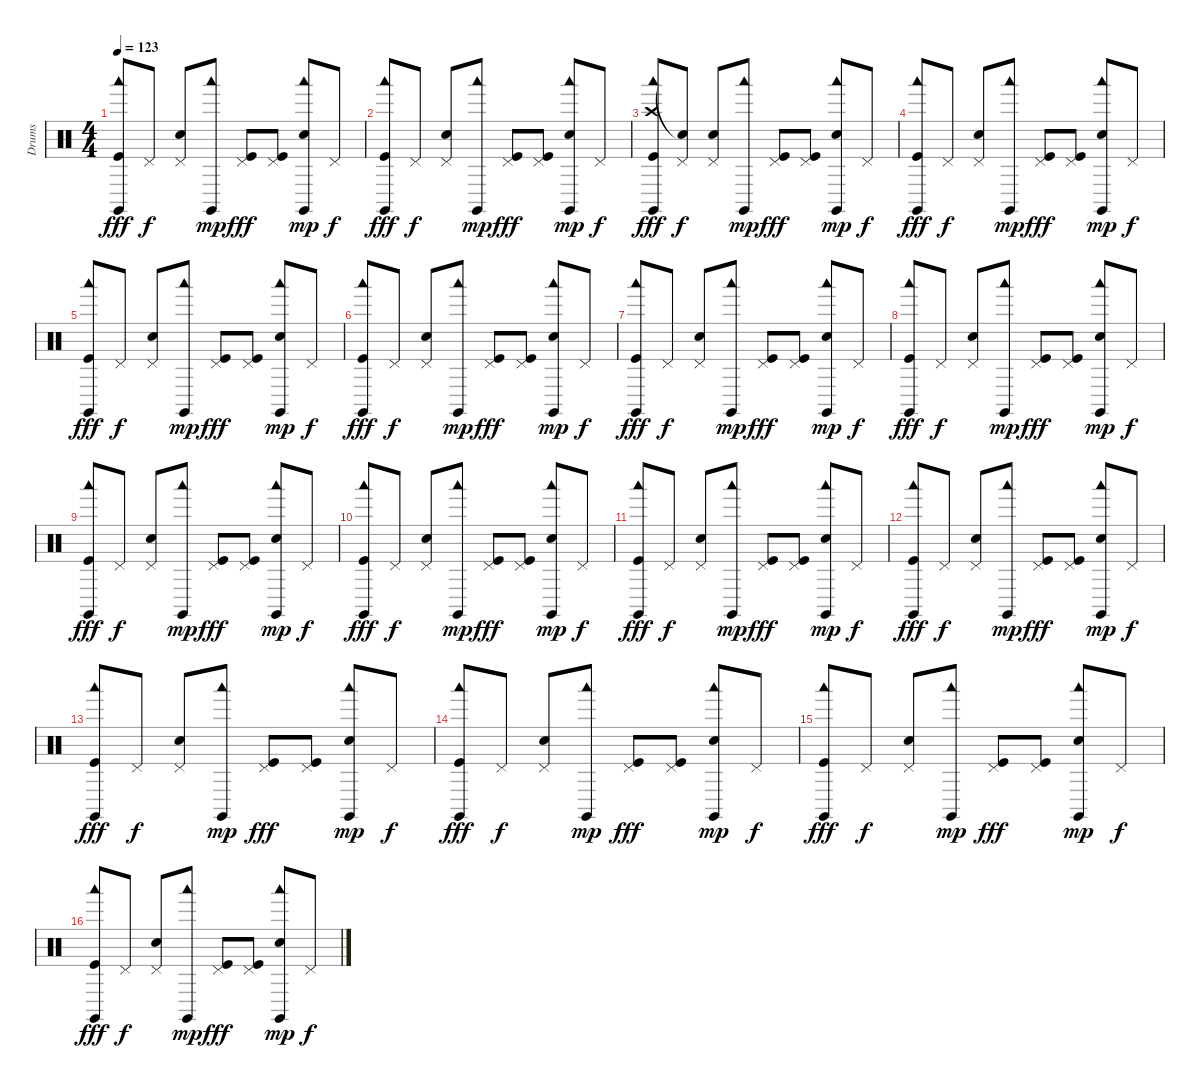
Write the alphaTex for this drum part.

\track ("Drums" "Drums") {instrument percussion}
\staff {score}
\articulation defaults
\ts (4 4)
\tempo 123
\clef neutral
\ks c
("Claves (hit)" "Woodblock low (hit)" "Kick (hit)").8{dy fff} "Pedal Hi-Hat (hit)".8{dy f} ("Pedal Hi-Hat (hit)" "Electric Snare (hit)").8 ("Claves (hit)" "Woodblock low (hit)").8{dy mp} ("Pedal Hi-Hat (hit)" "Kick (hit)").8{dy fff} ("Pedal Hi-Hat (hit)" "Kick (hit)").8 ("Claves (hit)" "Woodblock low (hit)" "Electric Snare (hit)").8{dy mp} "Pedal Hi-Hat (hit)".8{dy f} |
("Claves (hit)" "Woodblock low (hit)" "Kick (hit)").8{dy fff} "Pedal Hi-Hat (hit)".8{dy f} ("Pedal Hi-Hat (hit)" "Electric Snare (hit)").8 ("Claves (hit)" "Woodblock low (hit)").8{dy mp} ("Pedal Hi-Hat (hit)" "Kick (hit)").8{dy fff} ("Pedal Hi-Hat (hit)" "Kick (hit)").8 ("Claves (hit)" "Woodblock low (hit)" "Electric Snare (hit)").8{dy mp} "Pedal Hi-Hat (hit)".8{dy f} |
("Claves (hit)" "Woodblock low (hit)" "Crash high (hit)" "Kick (hit)").8{dy fff} ("Pedal Hi-Hat (hit)" "Snare (hit)"{t}).8{dy f} ("Pedal Hi-Hat (hit)" "Electric Snare (hit)").8 ("Claves (hit)" "Woodblock low (hit)").8{dy mp} ("Pedal Hi-Hat (hit)" "Kick (hit)").8{dy fff} ("Pedal Hi-Hat (hit)" "Kick (hit)").8 ("Claves (hit)" "Woodblock low (hit)" "Electric Snare (hit)").8{dy mp} "Pedal Hi-Hat (hit)".8{dy f} |
("Claves (hit)" "Woodblock low (hit)" "Kick (hit)").8{dy fff} "Pedal Hi-Hat (hit)".8{dy f} ("Pedal Hi-Hat (hit)" "Electric Snare (hit)").8 ("Claves (hit)" "Woodblock low (hit)").8{dy mp} ("Pedal Hi-Hat (hit)" "Kick (hit)").8{dy fff} ("Pedal Hi-Hat (hit)" "Kick (hit)").8 ("Claves (hit)" "Woodblock low (hit)" "Electric Snare (hit)").8{dy mp} "Pedal Hi-Hat (hit)".8{dy f} |
("Claves (hit)" "Woodblock low (hit)" "Kick (hit)").8{dy fff} "Pedal Hi-Hat (hit)".8{dy f} ("Pedal Hi-Hat (hit)" "Electric Snare (hit)").8 ("Claves (hit)" "Woodblock low (hit)").8{dy mp} ("Pedal Hi-Hat (hit)" "Kick (hit)").8{dy fff} ("Pedal Hi-Hat (hit)" "Kick (hit)").8 ("Claves (hit)" "Woodblock low (hit)" "Electric Snare (hit)").8{dy mp} "Pedal Hi-Hat (hit)".8{dy f} |
("Claves (hit)" "Woodblock low (hit)" "Kick (hit)").8{dy fff} "Pedal Hi-Hat (hit)".8{dy f} ("Pedal Hi-Hat (hit)" "Electric Snare (hit)").8 ("Claves (hit)" "Woodblock low (hit)").8{dy mp} ("Pedal Hi-Hat (hit)" "Kick (hit)").8{dy fff} ("Pedal Hi-Hat (hit)" "Kick (hit)").8 ("Claves (hit)" "Woodblock low (hit)" "Electric Snare (hit)").8{dy mp} "Pedal Hi-Hat (hit)".8{dy f} |
("Claves (hit)" "Woodblock low (hit)" "Kick (hit)").8{dy fff} "Pedal Hi-Hat (hit)".8{dy f} ("Pedal Hi-Hat (hit)" "Electric Snare (hit)").8 ("Claves (hit)" "Woodblock low (hit)").8{dy mp} ("Pedal Hi-Hat (hit)" "Kick (hit)").8{dy fff} ("Pedal Hi-Hat (hit)" "Kick (hit)").8 ("Claves (hit)" "Woodblock low (hit)" "Electric Snare (hit)").8{dy mp} "Pedal Hi-Hat (hit)".8{dy f} |
("Claves (hit)" "Woodblock low (hit)" "Kick (hit)").8{dy fff} "Pedal Hi-Hat (hit)".8{dy f} ("Pedal Hi-Hat (hit)" "Electric Snare (hit)").8 ("Claves (hit)" "Woodblock low (hit)").8{dy mp} ("Pedal Hi-Hat (hit)" "Kick (hit)").8{dy fff} ("Pedal Hi-Hat (hit)" "Kick (hit)").8 ("Claves (hit)" "Woodblock low (hit)" "Electric Snare (hit)").8{dy mp} "Pedal Hi-Hat (hit)".8{dy f} |
("Claves (hit)" "Woodblock low (hit)" "Kick (hit)").8{dy fff} "Pedal Hi-Hat (hit)".8{dy f} ("Pedal Hi-Hat (hit)" "Electric Snare (hit)").8 ("Claves (hit)" "Woodblock low (hit)").8{dy mp} ("Pedal Hi-Hat (hit)" "Kick (hit)").8{dy fff} ("Pedal Hi-Hat (hit)" "Kick (hit)").8 ("Claves (hit)" "Woodblock low (hit)" "Electric Snare (hit)").8{dy mp} "Pedal Hi-Hat (hit)".8{dy f} |
("Claves (hit)" "Woodblock low (hit)" "Kick (hit)").8{dy fff} "Pedal Hi-Hat (hit)".8{dy f} ("Pedal Hi-Hat (hit)" "Electric Snare (hit)").8 ("Claves (hit)" "Woodblock low (hit)").8{dy mp} ("Pedal Hi-Hat (hit)" "Kick (hit)").8{dy fff} ("Pedal Hi-Hat (hit)" "Kick (hit)").8 ("Claves (hit)" "Woodblock low (hit)" "Electric Snare (hit)").8{dy mp} "Pedal Hi-Hat (hit)".8{dy f} |
("Claves (hit)" "Woodblock low (hit)" "Kick (hit)").8{dy fff} "Pedal Hi-Hat (hit)".8{dy f} ("Pedal Hi-Hat (hit)" "Electric Snare (hit)").8 ("Claves (hit)" "Woodblock low (hit)").8{dy mp} ("Pedal Hi-Hat (hit)" "Kick (hit)").8{dy fff} ("Pedal Hi-Hat (hit)" "Kick (hit)").8 ("Claves (hit)" "Woodblock low (hit)" "Electric Snare (hit)").8{dy mp} "Pedal Hi-Hat (hit)".8{dy f} |
("Claves (hit)" "Woodblock low (hit)" "Kick (hit)").8{dy fff} "Pedal Hi-Hat (hit)".8{dy f} ("Pedal Hi-Hat (hit)" "Electric Snare (hit)").8 ("Claves (hit)" "Woodblock low (hit)").8{dy mp} ("Pedal Hi-Hat (hit)" "Kick (hit)").8{dy fff} ("Pedal Hi-Hat (hit)" "Kick (hit)").8 ("Claves (hit)" "Woodblock low (hit)" "Electric Snare (hit)").8{dy mp} "Pedal Hi-Hat (hit)".8{dy f} |
("Claves (hit)" "Woodblock low (hit)" "Kick (hit)").8{dy fff} "Pedal Hi-Hat (hit)".8{dy f} ("Pedal Hi-Hat (hit)" "Electric Snare (hit)").8 ("Claves (hit)" "Woodblock low (hit)").8{dy mp} ("Pedal Hi-Hat (hit)" "Kick (hit)").8{dy fff} ("Pedal Hi-Hat (hit)" "Kick (hit)").8 ("Claves (hit)" "Woodblock low (hit)" "Electric Snare (hit)").8{dy mp} "Pedal Hi-Hat (hit)".8{dy f} |
("Claves (hit)" "Woodblock low (hit)" "Kick (hit)").8{dy fff} "Pedal Hi-Hat (hit)".8{dy f} ("Pedal Hi-Hat (hit)" "Electric Snare (hit)").8 ("Claves (hit)" "Woodblock low (hit)").8{dy mp} ("Pedal Hi-Hat (hit)" "Kick (hit)").8{dy fff} ("Pedal Hi-Hat (hit)" "Kick (hit)").8 ("Claves (hit)" "Woodblock low (hit)" "Electric Snare (hit)").8{dy mp} "Pedal Hi-Hat (hit)".8{dy f} |
("Claves (hit)" "Woodblock low (hit)" "Kick (hit)").8{dy fff} "Pedal Hi-Hat (hit)".8{dy f} ("Pedal Hi-Hat (hit)" "Electric Snare (hit)").8 ("Claves (hit)" "Woodblock low (hit)").8{dy mp} ("Pedal Hi-Hat (hit)" "Kick (hit)").8{dy fff} ("Pedal Hi-Hat (hit)" "Kick (hit)").8 ("Claves (hit)" "Woodblock low (hit)" "Electric Snare (hit)").8{dy mp} "Pedal Hi-Hat (hit)".8{dy f} |
("Claves (hit)" "Woodblock low (hit)" "Kick (hit)").8{dy fff} "Pedal Hi-Hat (hit)".8{dy f} ("Pedal Hi-Hat (hit)" "Electric Snare (hit)").8 ("Claves (hit)" "Woodblock low (hit)").8{dy mp} ("Pedal Hi-Hat (hit)" "Kick (hit)").8{dy fff} ("Pedal Hi-Hat (hit)" "Kick (hit)").8 ("Claves (hit)" "Woodblock low (hit)" "Electric Snare (hit)").8{dy mp} "Pedal Hi-Hat (hit)".8{dy f}
